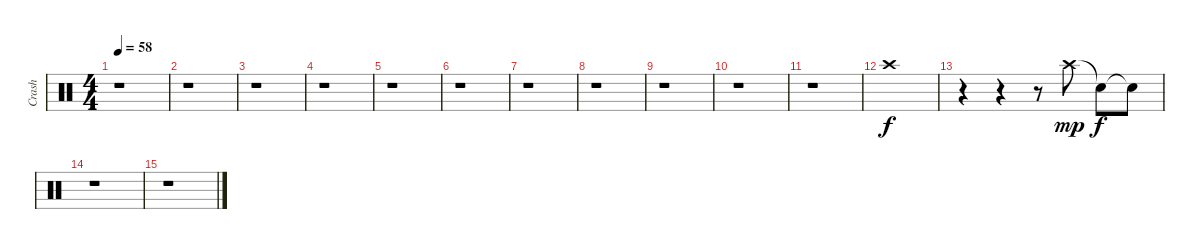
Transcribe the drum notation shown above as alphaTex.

\track ("Crash" "Crash") {instrument percussion}
\staff {score}
\articulation defaults
\ts (4 4)
\tempo 58
\clef neutral
\ks c
r.1{dy f} |
r.1 |
r.1 |
r.1 |
r.1 |
r.1 |
r.1 |
r.1 |
r.1 |
r.1 |
r.1 |
"Crash high (hit)".1 |
r.4 r.4 r.8 "Crash high (hit)".8{dy mp} "Snare (hit)"{t}.8{dy f} "Snare (hit)"{t}.8 |
r.1 |
r.1
